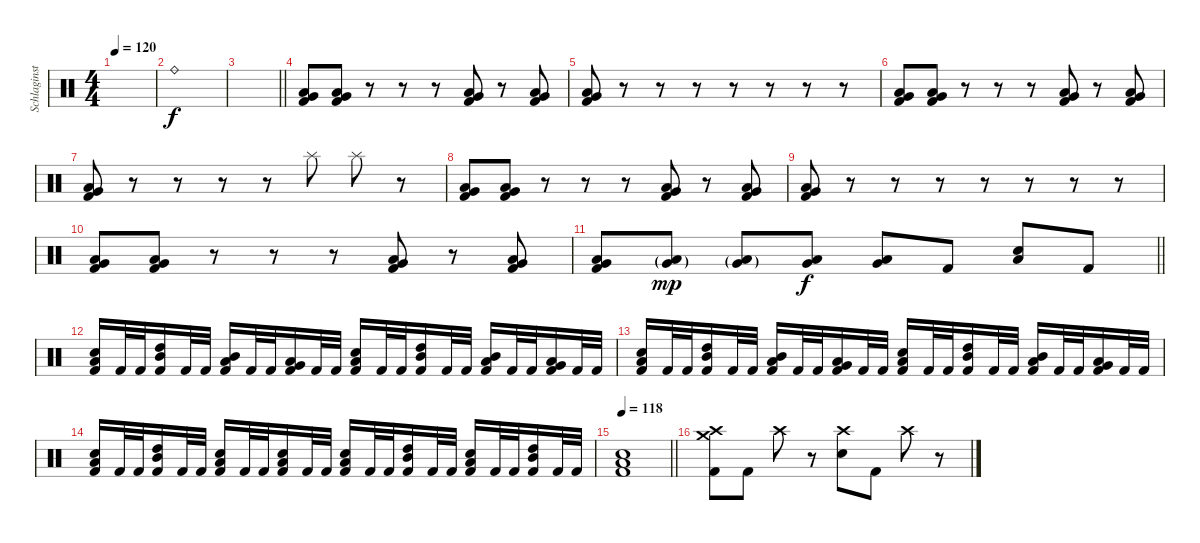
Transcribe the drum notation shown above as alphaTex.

\track ("Schlaginstrumente - Auswahl" "Schlaginst") {instrument percussion}
\staff {score}
\articulation defaults
\ts (4 4)
\tempo 120
\clef neutral
\ks c
|
"Ride (bell)".1 |
\barLineRight lightlight
|
("Very Low Tom (hit)" "Low Floor Tom (hit)" "Kick (hit) 2").8 ("Very Low Tom (hit)" "Low Floor Tom (hit)" "Kick (hit) 2").8 r.8 r.8 r.8 ("Very Low Tom (hit)" "Low Floor Tom (hit)" "Kick (hit) 2").8 r.8 ("Very Low Tom (hit)" "Low Floor Tom (hit)" "Kick (hit) 2").8 |
("Very Low Tom (hit)" "Low Floor Tom (hit)" "Kick (hit) 2").8 r.8 r.8 r.8 r.8 r.8 r.8 r.8 |
("Very Low Tom (hit)" "Low Floor Tom (hit)" "Kick (hit) 2").8 ("Very Low Tom (hit)" "Low Floor Tom (hit)" "Kick (hit) 2").8 r.8 r.8 r.8 ("Very Low Tom (hit)" "Low Floor Tom (hit)" "Kick (hit) 2").8 r.8 ("Very Low Tom (hit)" "Low Floor Tom (hit)" "Kick (hit) 2").8 |
("Very Low Tom (hit)" "Low Floor Tom (hit)" "Kick (hit) 2").8 r.8 r.8 r.8 r.8 "Splash (hit)".8 "Splash (hit)".8 r.8 |
("Very Low Tom (hit)" "Low Floor Tom (hit)" "Kick (hit) 2").8 ("Very Low Tom (hit)" "Low Floor Tom (hit)" "Kick (hit) 2").8 r.8 r.8 r.8 ("Very Low Tom (hit)" "Low Floor Tom (hit)" "Kick (hit) 2").8 r.8 ("Very Low Tom (hit)" "Low Floor Tom (hit)" "Kick (hit) 2").8 |
("Very Low Tom (hit)" "Low Floor Tom (hit)" "Kick (hit) 2").8 r.8 r.8 r.8 r.8 r.8 r.8 r.8 |
("Very Low Tom (hit)" "Low Floor Tom (hit)" "Kick (hit) 2").8 ("Very Low Tom (hit)" "Low Floor Tom (hit)" "Kick (hit) 2").8 r.8 r.8 r.8 ("Very Low Tom (hit)" "Low Floor Tom (hit)" "Kick (hit) 2").8 r.8 ("Very Low Tom (hit)" "Low Floor Tom (hit)" "Kick (hit) 2").8 |
\barLineRight lightlight
("Very Low Tom (hit)" "Low Floor Tom (hit)" "Kick (hit) 2").8 ("Very Low Tom (hit)"{g} "Low Floor Tom (hit)"{g}).8{dy mp} ("Very Low Tom (hit)"{g} "Low Floor Tom (hit)"{g}).8 ("Very Low Tom (hit)" "Low Floor Tom (hit)").8{dy f} ("Very Low Tom (hit)" "Low Floor Tom (hit)").8 "Kick (hit) 2".8 ("Low Floor Tom (hit)" "Electric Snare (hit)").8 "Kick (hit) 2".8 |
("Low Floor Tom (hit)" "Electric Snare (hit)" "Kick (hit) 2").16 "Kick (hit) 2".32 "Kick (hit) 2".32 ("High Tom (hit)" "Mid Tom (hit)" "Kick (hit) 2").16 "Kick (hit) 2".32 "Kick (hit) 2".32 ("Mid Tom (hit)" "Low Tom (hit)" "Kick (hit) 2").16 "Kick (hit) 2".32 "Kick (hit) 2".32 ("Very Low Tom (hit)" "Low Tom (hit)" "Kick (hit) 2").16 "Kick (hit) 2".32 "Kick (hit) 2".32 ("Low Floor Tom (hit)" "Electric Snare (hit)" "Kick (hit) 2").16 "Kick (hit) 2".32 "Kick (hit) 2".32 ("High Tom (hit)" "Mid Tom (hit)" "Kick (hit) 2").16 "Kick (hit) 2".32 "Kick (hit) 2".32 ("Mid Tom (hit)" "Low Tom (hit)" "Kick (hit) 2").16 "Kick (hit) 2".32 "Kick (hit) 2".32 ("Very Low Tom (hit)" "Low Tom (hit)" "Kick (hit) 2").16 "Kick (hit) 2".32 "Kick (hit) 2".32 |
("Low Floor Tom (hit)" "Electric Snare (hit)" "Kick (hit) 2").16 "Kick (hit) 2".32 "Kick (hit) 2".32 ("High Tom (hit)" "Mid Tom (hit)" "Kick (hit) 2").16 "Kick (hit) 2".32 "Kick (hit) 2".32 ("Mid Tom (hit)" "Low Tom (hit)" "Kick (hit) 2").16 "Kick (hit) 2".32 "Kick (hit) 2".32 ("Very Low Tom (hit)" "Low Tom (hit)" "Kick (hit) 2").16 "Kick (hit) 2".32 "Kick (hit) 2".32 ("Low Floor Tom (hit)" "Electric Snare (hit)" "Kick (hit) 2").16 "Kick (hit) 2".32 "Kick (hit) 2".32 ("High Tom (hit)" "Mid Tom (hit)" "Kick (hit) 2").16 "Kick (hit) 2".32 "Kick (hit) 2".32 ("Mid Tom (hit)" "Low Tom (hit)" "Kick (hit) 2").16 "Kick (hit) 2".32 "Kick (hit) 2".32 ("Very Low Tom (hit)" "Low Tom (hit)" "Kick (hit) 2").16 "Kick (hit) 2".32 "Kick (hit) 2".32 |
("Low Floor Tom (hit)" "Electric Snare (hit)" "Kick (hit) 2").16 "Kick (hit) 2".32 "Kick (hit) 2".32 ("High Tom (hit)" "Mid Tom (hit)" "Kick (hit) 2").16 "Kick (hit) 2".32 "Kick (hit) 2".32 ("Low Floor Tom (hit)" "Electric Snare (hit)" "Kick (hit) 2").16 "Kick (hit) 2".32 "Kick (hit) 2".32 ("Low Floor Tom (hit)" "Electric Snare (hit)" "Kick (hit) 2").16 "Kick (hit) 2".32 "Kick (hit) 2".32 ("Low Floor Tom (hit)" "Electric Snare (hit)" "Kick (hit) 2").16 "Kick (hit) 2".32 "Kick (hit) 2".32 ("High Tom (hit)" "Mid Tom (hit)" "Kick (hit) 2").16 "Kick (hit) 2".32 "Kick (hit) 2".32 ("Low Floor Tom (hit)" "Electric Snare (hit)" "Kick (hit) 2").16 "Kick (hit) 2".32 "Kick (hit) 2".32 ("High Tom (hit)" "Mid Tom (hit)" "Kick (hit) 2").16 "Kick (hit) 2".32 "Kick (hit) 2".32 |
\tempo 118
\barLineRight lightlight
("Low Floor Tom (hit)" "Electric Snare (hit)" "Kick (hit) 2").1 |
("Crash medium (hit)" "Crash high (hit)" "Kick (hit) 2").8 "Kick (hit) 2".8 "Crash high (hit)".8 r.8 ("Crash high (hit)" "Electric Snare (hit)").8 "Kick (hit) 2".8 "Crash high (hit)".8 r.8
